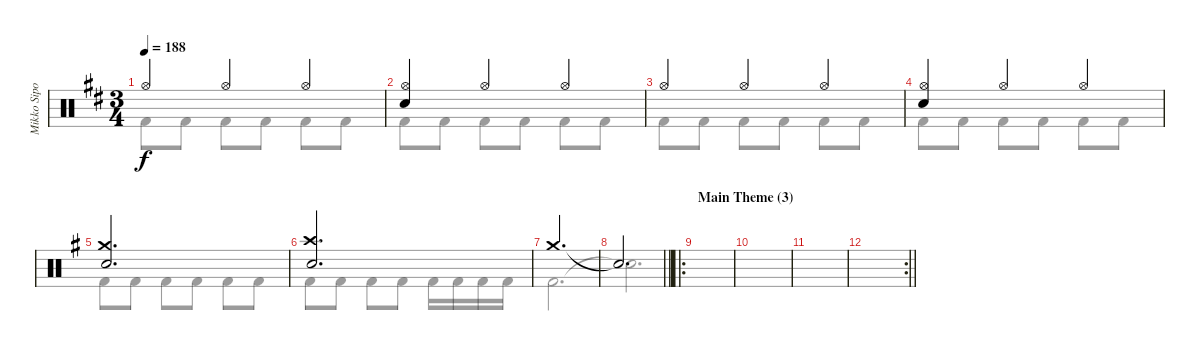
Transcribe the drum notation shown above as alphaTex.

\track ("Mikko Sipola (drums)" "Mikko Sipo") {instrument percussion}
\staff {score}
\articulation defaults
\voice
\ts (3 4)
\tempo 188
\clef neutral
\ks bminor "Hi-Hat (open)".4{dy f} "Hi-Hat (open)".4 "Hi-Hat (open)".4
|
("Hi-Hat (open)" "Electric Snare (hit)").4 "Hi-Hat (open)".4 "Hi-Hat (open)".4 |
"Hi-Hat (open)".4 "Hi-Hat (open)".4 "Hi-Hat (open)".4 |
("Hi-Hat (open)" "Electric Snare (hit)").4 "Hi-Hat (open)".4 "Hi-Hat (open)".4 |
\ks eminor
("Crash medium (hit)" "Electric Snare (hit)").2{d} |
("Crash high (hit)" "Electric Snare (hit)").2{d} |
"Crash medium (hit)".2{d} |
\barLineRight lightlight "Snare (hit)"{t}.2{d}
|
\ro
\section ("" "Main Theme (3)")
|
|
|
\rc 2
\barLineRight lightlight
|
|
|
|
\voice
\clef neutral
\ottava regular
\simile none
\ks bminor "Kick (hit) 2".8{dy f} "Kick (hit) 2".8 "Kick (hit) 2".8 "Kick (hit) 2".8 "Kick (hit) 2".8 "Kick (hit) 2".8
|
"Kick (hit) 2".8 "Kick (hit) 2".8 "Kick (hit) 2".8 "Kick (hit) 2".8 "Kick (hit) 2".8 "Kick (hit) 2".8 |
"Kick (hit) 2".8 "Kick (hit) 2".8 "Kick (hit) 2".8 "Kick (hit) 2".8 "Kick (hit) 2".8 "Kick (hit) 2".8 |
"Kick (hit) 2".8 "Kick (hit) 2".8 "Kick (hit) 2".8 "Kick (hit) 2".8 "Kick (hit) 2".8 "Kick (hit) 2".8 |
\ks eminor "Kick (hit) 2".8 "Kick (hit) 2".8 "Kick (hit) 2".8 "Kick (hit) 2".8 "Kick (hit) 2".8 "Kick (hit) 2".8
|
"Kick (hit) 2".8 "Kick (hit) 2".8 "Kick (hit) 2".8 "Kick (hit) 2".8 "Kick (hit) 2".16 "Kick (hit) 2".16 "Kick (hit) 2".16 "Kick (hit) 2".16 |
"Kick (hit) 2".2{d} |
\barLineRight lightlight "Snare (hit)"{t}.2{d}
|
|
|
|
\barLineRight lightlight
|
|
|
|
